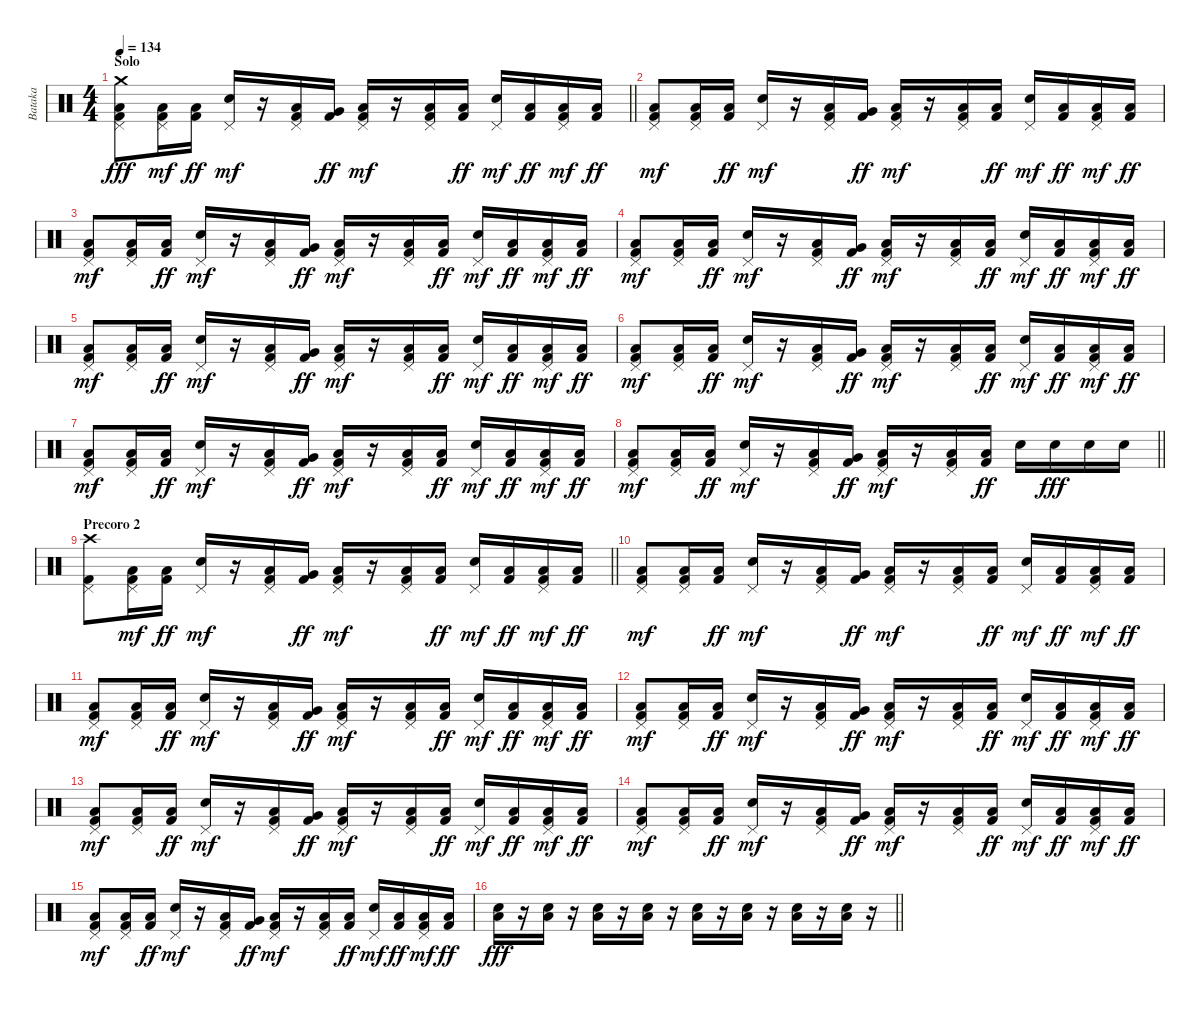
\track ("Bataka" "Bataka") {instrument percussion}
\staff {score}
\articulation defaults
\ts (4 4)
\section ("" "Solo")
\tempo 134
\clef neutral
\barLineRight lightlight
\ks c
("Kick (hit) 2" "Low Floor Tom (hit)" "Pedal Hi-Hat (hit)" "Crash medium (hit)").8{dy fff} ("Kick (hit) 2" "Low Floor Tom (hit)" "Pedal Hi-Hat (hit)").16{dy mf} ("Kick (hit) 2" "Low Tom (hit)").16{dy ff} ("Snare (hit) 2" "Pedal Hi-Hat (hit)").16{dy mf} r.16 ("Kick (hit) 2" "Low Tom (hit)" "Pedal Hi-Hat (hit)").16 ("Kick (hit) 2" "Very Low Tom (hit)").16{dy ff} ("Kick (hit) 2" "Low Floor Tom (hit)" "Pedal Hi-Hat (hit)").16{dy mf} r.16 ("Kick (hit) 2" "Low Floor Tom (hit)" "Pedal Hi-Hat (hit)").16 ("Kick (hit) 2" "Low Tom (hit)").16{dy ff} ("Snare (hit) 2" "Pedal Hi-Hat (hit)").16{dy mf} ("Kick (hit) 2" "Low Tom (hit)").16{dy ff} ("Kick (hit) 2" "Low Tom (hit)" "Pedal Hi-Hat (hit)").16{dy mf} ("Kick (hit) 2" "Low Floor Tom (hit)").16{dy ff} |
("Kick (hit) 2" "Low Floor Tom (hit)" "Pedal Hi-Hat (hit)").8{dy mf} ("Kick (hit) 2" "Low Floor Tom (hit)" "Pedal Hi-Hat (hit)").16 ("Kick (hit) 2" "Low Tom (hit)").16{dy ff} ("Snare (hit) 2" "Pedal Hi-Hat (hit)").16{dy mf} r.16 ("Kick (hit) 2" "Low Tom (hit)" "Pedal Hi-Hat (hit)").16 ("Kick (hit) 2" "Very Low Tom (hit)").16{dy ff} ("Kick (hit) 2" "Low Floor Tom (hit)" "Pedal Hi-Hat (hit)").16{dy mf} r.16 ("Kick (hit) 2" "Low Floor Tom (hit)" "Pedal Hi-Hat (hit)").16 ("Kick (hit) 2" "Low Tom (hit)").16{dy ff} ("Snare (hit) 2" "Pedal Hi-Hat (hit)").16{dy mf} ("Kick (hit) 2" "Low Tom (hit)").16{dy ff} ("Kick (hit) 2" "Low Tom (hit)" "Pedal Hi-Hat (hit)").16{dy mf} ("Kick (hit) 2" "Low Floor Tom (hit)").16{dy ff} |
("Kick (hit) 2" "Low Floor Tom (hit)" "Pedal Hi-Hat (hit)").8{dy mf} ("Kick (hit) 2" "Low Floor Tom (hit)" "Pedal Hi-Hat (hit)").16 ("Kick (hit) 2" "Low Tom (hit)").16{dy ff} ("Snare (hit) 2" "Pedal Hi-Hat (hit)").16{dy mf} r.16 ("Kick (hit) 2" "Low Tom (hit)" "Pedal Hi-Hat (hit)").16 ("Kick (hit) 2" "Very Low Tom (hit)").16{dy ff} ("Kick (hit) 2" "Low Floor Tom (hit)" "Pedal Hi-Hat (hit)").16{dy mf} r.16 ("Kick (hit) 2" "Low Floor Tom (hit)" "Pedal Hi-Hat (hit)").16 ("Kick (hit) 2" "Low Tom (hit)").16{dy ff} ("Snare (hit) 2" "Pedal Hi-Hat (hit)").16{dy mf} ("Kick (hit) 2" "Low Tom (hit)").16{dy ff} ("Kick (hit) 2" "Low Tom (hit)" "Pedal Hi-Hat (hit)").16{dy mf} ("Kick (hit) 2" "Low Floor Tom (hit)").16{dy ff} |
("Kick (hit) 2" "Low Floor Tom (hit)" "Pedal Hi-Hat (hit)").8{dy mf} ("Kick (hit) 2" "Low Floor Tom (hit)" "Pedal Hi-Hat (hit)").16 ("Kick (hit) 2" "Low Tom (hit)").16{dy ff} ("Snare (hit) 2" "Pedal Hi-Hat (hit)").16{dy mf} r.16 ("Kick (hit) 2" "Low Tom (hit)" "Pedal Hi-Hat (hit)").16 ("Kick (hit) 2" "Very Low Tom (hit)").16{dy ff} ("Kick (hit) 2" "Low Floor Tom (hit)" "Pedal Hi-Hat (hit)").16{dy mf} r.16 ("Kick (hit) 2" "Low Floor Tom (hit)" "Pedal Hi-Hat (hit)").16 ("Kick (hit) 2" "Low Tom (hit)").16{dy ff} ("Snare (hit) 2" "Pedal Hi-Hat (hit)").16{dy mf} ("Kick (hit) 2" "Low Tom (hit)").16{dy ff} ("Kick (hit) 2" "Low Tom (hit)" "Pedal Hi-Hat (hit)").16{dy mf} ("Kick (hit) 2" "Low Floor Tom (hit)").16{dy ff} |
("Kick (hit) 2" "Low Floor Tom (hit)" "Pedal Hi-Hat (hit)").8{dy mf} ("Kick (hit) 2" "Low Floor Tom (hit)" "Pedal Hi-Hat (hit)").16 ("Kick (hit) 2" "Low Tom (hit)").16{dy ff} ("Snare (hit) 2" "Pedal Hi-Hat (hit)").16{dy mf} r.16 ("Kick (hit) 2" "Low Tom (hit)" "Pedal Hi-Hat (hit)").16 ("Kick (hit) 2" "Very Low Tom (hit)").16{dy ff} ("Kick (hit) 2" "Low Floor Tom (hit)" "Pedal Hi-Hat (hit)").16{dy mf} r.16 ("Kick (hit) 2" "Low Floor Tom (hit)" "Pedal Hi-Hat (hit)").16 ("Kick (hit) 2" "Low Tom (hit)").16{dy ff} ("Snare (hit) 2" "Pedal Hi-Hat (hit)").16{dy mf} ("Kick (hit) 2" "Low Tom (hit)").16{dy ff} ("Kick (hit) 2" "Low Tom (hit)" "Pedal Hi-Hat (hit)").16{dy mf} ("Kick (hit) 2" "Low Floor Tom (hit)").16{dy ff} |
("Kick (hit) 2" "Low Floor Tom (hit)" "Pedal Hi-Hat (hit)").8{dy mf} ("Kick (hit) 2" "Low Floor Tom (hit)" "Pedal Hi-Hat (hit)").16 ("Kick (hit) 2" "Low Tom (hit)").16{dy ff} ("Snare (hit) 2" "Pedal Hi-Hat (hit)").16{dy mf} r.16 ("Kick (hit) 2" "Low Tom (hit)" "Pedal Hi-Hat (hit)").16 ("Kick (hit) 2" "Very Low Tom (hit)").16{dy ff} ("Kick (hit) 2" "Low Floor Tom (hit)" "Pedal Hi-Hat (hit)").16{dy mf} r.16 ("Kick (hit) 2" "Low Floor Tom (hit)" "Pedal Hi-Hat (hit)").16 ("Kick (hit) 2" "Low Tom (hit)").16{dy ff} ("Snare (hit) 2" "Pedal Hi-Hat (hit)").16{dy mf} ("Kick (hit) 2" "Low Tom (hit)").16{dy ff} ("Kick (hit) 2" "Low Tom (hit)" "Pedal Hi-Hat (hit)").16{dy mf} ("Kick (hit) 2" "Low Floor Tom (hit)").16{dy ff} |
("Kick (hit) 2" "Low Floor Tom (hit)" "Pedal Hi-Hat (hit)").8{dy mf} ("Kick (hit) 2" "Low Floor Tom (hit)" "Pedal Hi-Hat (hit)").16 ("Kick (hit) 2" "Low Tom (hit)").16{dy ff} ("Snare (hit) 2" "Pedal Hi-Hat (hit)").16{dy mf} r.16 ("Kick (hit) 2" "Low Tom (hit)" "Pedal Hi-Hat (hit)").16 ("Kick (hit) 2" "Very Low Tom (hit)").16{dy ff} ("Kick (hit) 2" "Low Floor Tom (hit)" "Pedal Hi-Hat (hit)").16{dy mf} r.16 ("Kick (hit) 2" "Low Floor Tom (hit)" "Pedal Hi-Hat (hit)").16 ("Kick (hit) 2" "Low Tom (hit)").16{dy ff} ("Snare (hit) 2" "Pedal Hi-Hat (hit)").16{dy mf} ("Kick (hit) 2" "Low Tom (hit)").16{dy ff} ("Kick (hit) 2" "Low Tom (hit)" "Pedal Hi-Hat (hit)").16{dy mf} ("Kick (hit) 2" "Low Floor Tom (hit)").16{dy ff} |
\barLineRight lightlight
("Kick (hit) 2" "Low Floor Tom (hit)" "Pedal Hi-Hat (hit)").8{dy mf} ("Kick (hit) 2" "Low Floor Tom (hit)" "Pedal Hi-Hat (hit)").16 ("Kick (hit) 2" "Low Tom (hit)").16{dy ff} ("Snare (hit) 2" "Pedal Hi-Hat (hit)").16{dy mf} r.16 ("Kick (hit) 2" "Low Tom (hit)" "Pedal Hi-Hat (hit)").16 ("Kick (hit) 2" "Very Low Tom (hit)").16{dy ff} ("Kick (hit) 2" "Low Floor Tom (hit)" "Pedal Hi-Hat (hit)").16{dy mf} r.16 ("Kick (hit) 2" "Low Floor Tom (hit)" "Pedal Hi-Hat (hit)").16 ("Kick (hit) 2" "Low Tom (hit)").16{dy ff} "Snare (hit) 2".16 "Snare (hit) 2".16{dy fff} "Snare (hit) 2".16 "Snare (hit) 2".16 |
\section ("" "Precoro 2")
\barLineRight lightlight
("Kick (hit) 2" "Pedal Hi-Hat (hit)" "Crash high (hit)").8 ("Kick (hit) 2" "Low Floor Tom (hit)" "Pedal Hi-Hat (hit)").16{dy mf} ("Kick (hit) 2" "Low Tom (hit)").16{dy ff} ("Snare (hit) 2" "Pedal Hi-Hat (hit)").16{dy mf} r.16 ("Kick (hit) 2" "Low Tom (hit)" "Pedal Hi-Hat (hit)").16 ("Kick (hit) 2" "Very Low Tom (hit)").16{dy ff} ("Kick (hit) 2" "Low Floor Tom (hit)" "Pedal Hi-Hat (hit)").16{dy mf} r.16 ("Kick (hit) 2" "Low Floor Tom (hit)" "Pedal Hi-Hat (hit)").16 ("Kick (hit) 2" "Low Tom (hit)").16{dy ff} ("Snare (hit) 2" "Pedal Hi-Hat (hit)").16{dy mf} ("Kick (hit) 2" "Low Tom (hit)").16{dy ff} ("Kick (hit) 2" "Low Tom (hit)" "Pedal Hi-Hat (hit)").16{dy mf} ("Kick (hit) 2" "Low Floor Tom (hit)").16{dy ff} |
("Kick (hit) 2" "Low Floor Tom (hit)" "Pedal Hi-Hat (hit)").8{dy mf} ("Kick (hit) 2" "Low Floor Tom (hit)" "Pedal Hi-Hat (hit)").16 ("Kick (hit) 2" "Low Tom (hit)").16{dy ff} ("Snare (hit) 2" "Pedal Hi-Hat (hit)").16{dy mf} r.16 ("Kick (hit) 2" "Low Tom (hit)" "Pedal Hi-Hat (hit)").16 ("Kick (hit) 2" "Very Low Tom (hit)").16{dy ff} ("Kick (hit) 2" "Low Floor Tom (hit)" "Pedal Hi-Hat (hit)").16{dy mf} r.16 ("Kick (hit) 2" "Low Floor Tom (hit)" "Pedal Hi-Hat (hit)").16 ("Kick (hit) 2" "Low Tom (hit)").16{dy ff} ("Snare (hit) 2" "Pedal Hi-Hat (hit)").16{dy mf} ("Kick (hit) 2" "Low Tom (hit)").16{dy ff} ("Kick (hit) 2" "Low Tom (hit)" "Pedal Hi-Hat (hit)").16{dy mf} ("Kick (hit) 2" "Low Floor Tom (hit)").16{dy ff} |
("Kick (hit) 2" "Low Floor Tom (hit)" "Pedal Hi-Hat (hit)").8{dy mf} ("Kick (hit) 2" "Low Floor Tom (hit)" "Pedal Hi-Hat (hit)").16 ("Kick (hit) 2" "Low Tom (hit)").16{dy ff} ("Snare (hit) 2" "Pedal Hi-Hat (hit)").16{dy mf} r.16 ("Kick (hit) 2" "Low Tom (hit)" "Pedal Hi-Hat (hit)").16 ("Kick (hit) 2" "Very Low Tom (hit)").16{dy ff} ("Kick (hit) 2" "Low Floor Tom (hit)" "Pedal Hi-Hat (hit)").16{dy mf} r.16 ("Kick (hit) 2" "Low Floor Tom (hit)" "Pedal Hi-Hat (hit)").16 ("Kick (hit) 2" "Low Tom (hit)").16{dy ff} ("Snare (hit) 2" "Pedal Hi-Hat (hit)").16{dy mf} ("Kick (hit) 2" "Low Tom (hit)").16{dy ff} ("Kick (hit) 2" "Low Tom (hit)" "Pedal Hi-Hat (hit)").16{dy mf} ("Kick (hit) 2" "Low Floor Tom (hit)").16{dy ff} |
("Kick (hit) 2" "Low Floor Tom (hit)" "Pedal Hi-Hat (hit)").8{dy mf} ("Kick (hit) 2" "Low Floor Tom (hit)" "Pedal Hi-Hat (hit)").16 ("Kick (hit) 2" "Low Tom (hit)").16{dy ff} ("Snare (hit) 2" "Pedal Hi-Hat (hit)").16{dy mf} r.16 ("Kick (hit) 2" "Low Tom (hit)" "Pedal Hi-Hat (hit)").16 ("Kick (hit) 2" "Very Low Tom (hit)").16{dy ff} ("Kick (hit) 2" "Low Floor Tom (hit)" "Pedal Hi-Hat (hit)").16{dy mf} r.16 ("Kick (hit) 2" "Low Floor Tom (hit)" "Pedal Hi-Hat (hit)").16 ("Kick (hit) 2" "Low Tom (hit)").16{dy ff} ("Snare (hit) 2" "Pedal Hi-Hat (hit)").16{dy mf} ("Kick (hit) 2" "Low Tom (hit)").16{dy ff} ("Kick (hit) 2" "Low Tom (hit)" "Pedal Hi-Hat (hit)").16{dy mf} ("Kick (hit) 2" "Low Floor Tom (hit)").16{dy ff} |
("Kick (hit) 2" "Low Floor Tom (hit)" "Pedal Hi-Hat (hit)").8{dy mf} ("Kick (hit) 2" "Low Floor Tom (hit)" "Pedal Hi-Hat (hit)").16 ("Kick (hit) 2" "Low Tom (hit)").16{dy ff} ("Snare (hit) 2" "Pedal Hi-Hat (hit)").16{dy mf} r.16 ("Kick (hit) 2" "Low Tom (hit)" "Pedal Hi-Hat (hit)").16 ("Kick (hit) 2" "Very Low Tom (hit)").16{dy ff} ("Kick (hit) 2" "Low Floor Tom (hit)" "Pedal Hi-Hat (hit)").16{dy mf} r.16 ("Kick (hit) 2" "Low Floor Tom (hit)" "Pedal Hi-Hat (hit)").16 ("Kick (hit) 2" "Low Tom (hit)").16{dy ff} ("Snare (hit) 2" "Pedal Hi-Hat (hit)").16{dy mf} ("Kick (hit) 2" "Low Tom (hit)").16{dy ff} ("Kick (hit) 2" "Low Tom (hit)" "Pedal Hi-Hat (hit)").16{dy mf} ("Kick (hit) 2" "Low Floor Tom (hit)").16{dy ff} |
("Kick (hit) 2" "Low Floor Tom (hit)" "Pedal Hi-Hat (hit)").8{dy mf} ("Kick (hit) 2" "Low Floor Tom (hit)" "Pedal Hi-Hat (hit)").16 ("Kick (hit) 2" "Low Tom (hit)").16{dy ff} ("Snare (hit) 2" "Pedal Hi-Hat (hit)").16{dy mf} r.16 ("Kick (hit) 2" "Low Tom (hit)" "Pedal Hi-Hat (hit)").16 ("Kick (hit) 2" "Very Low Tom (hit)").16{dy ff} ("Kick (hit) 2" "Low Floor Tom (hit)" "Pedal Hi-Hat (hit)").16{dy mf} r.16 ("Kick (hit) 2" "Low Floor Tom (hit)" "Pedal Hi-Hat (hit)").16 ("Kick (hit) 2" "Low Tom (hit)").16{dy ff} ("Snare (hit) 2" "Pedal Hi-Hat (hit)").16{dy mf} ("Kick (hit) 2" "Low Tom (hit)").16{dy ff} ("Kick (hit) 2" "Low Tom (hit)" "Pedal Hi-Hat (hit)").16{dy mf} ("Kick (hit) 2" "Low Floor Tom (hit)").16{dy ff} |
("Kick (hit) 2" "Low Floor Tom (hit)" "Pedal Hi-Hat (hit)").8{dy mf} ("Kick (hit) 2" "Low Floor Tom (hit)" "Pedal Hi-Hat (hit)").16 ("Kick (hit) 2" "Low Tom (hit)").16{dy ff} ("Snare (hit) 2" "Pedal Hi-Hat (hit)").16{dy mf} r.16 ("Kick (hit) 2" "Low Tom (hit)" "Pedal Hi-Hat (hit)").16 ("Kick (hit) 2" "Very Low Tom (hit)").16{dy ff} ("Kick (hit) 2" "Low Floor Tom (hit)" "Pedal Hi-Hat (hit)").16{dy mf} r.16 ("Kick (hit) 2" "Low Floor Tom (hit)" "Pedal Hi-Hat (hit)").16 ("Kick (hit) 2" "Low Tom (hit)").16{dy ff} ("Snare (hit) 2" "Pedal Hi-Hat (hit)").16{dy mf} ("Kick (hit) 2" "Low Tom (hit)").16{dy ff} ("Kick (hit) 2" "Low Tom (hit)" "Pedal Hi-Hat (hit)").16{dy mf} ("Kick (hit) 2" "Low Floor Tom (hit)").16{dy ff} |
\barLineRight lightlight
("Snare (hit) 2" "Low Floor Tom (hit)").16{dy fff volume 6} r.16 ("Snare (hit) 2" "Low Floor Tom (hit)").16{volume 13} r.16 ("Snare (hit) 2" "Low Floor Tom (hit)").16 r.16 ("Snare (hit) 2" "Low Floor Tom (hit)").16 r.16 ("Snare (hit) 2" "Low Floor Tom (hit)").16 r.16 ("Snare (hit) 2" "Low Floor Tom (hit)").16 r.16 ("Snare (hit) 2" "Low Floor Tom (hit)").16 r.16 ("Snare (hit) 2" "Low Floor Tom (hit)").16 r.16
